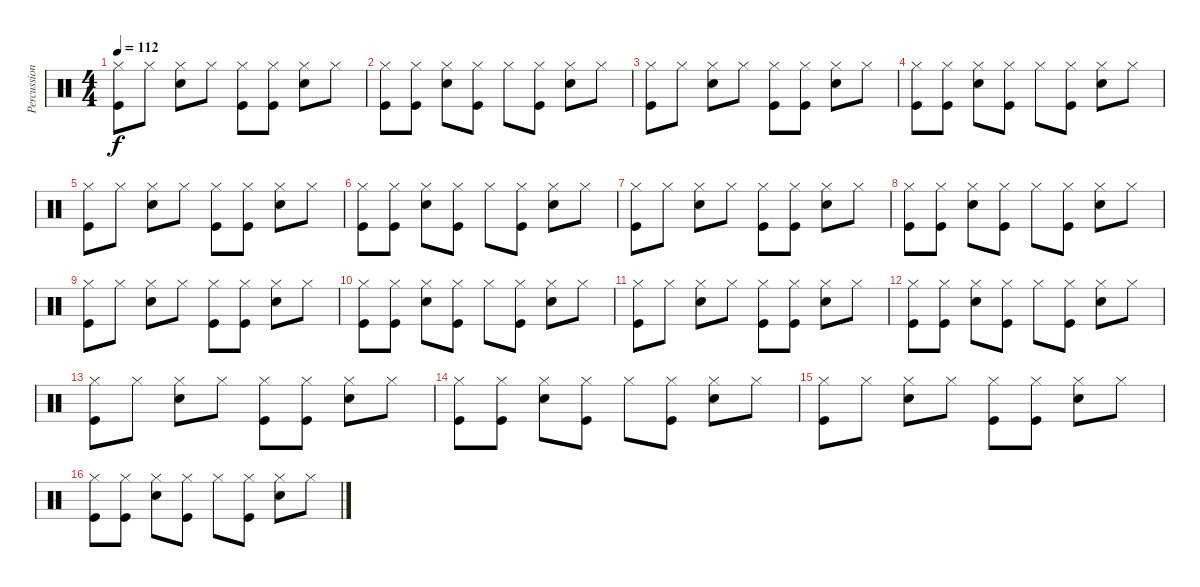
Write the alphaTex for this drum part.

\track ("Percussion" "Percussion") {instrument percussion}
\staff {score}
\articulation defaults
\ts (4 4)
\tempo 112
\clef neutral
\ks c
("Hi-Hat (closed)" "Kick (hit)").8{dy f} "Hi-Hat (closed)".8 ("Hi-Hat (closed)" "Electric Snare (hit)").8 "Hi-Hat (closed)".8 ("Hi-Hat (closed)" "Kick (hit)").8 ("Hi-Hat (closed)" "Kick (hit)").8 ("Hi-Hat (closed)" "Electric Snare (hit)").8 "Hi-Hat (closed)".8 |
("Hi-Hat (closed)" "Kick (hit)").8 ("Hi-Hat (closed)" "Kick (hit)").8 ("Hi-Hat (closed)" "Electric Snare (hit)").8 ("Hi-Hat (closed)" "Kick (hit)").8 "Hi-Hat (closed)".8 ("Hi-Hat (closed)" "Kick (hit)").8 ("Hi-Hat (closed)" "Electric Snare (hit)").8 "Hi-Hat (closed)".8 |
("Hi-Hat (closed)" "Kick (hit)").8 "Hi-Hat (closed)".8 ("Hi-Hat (closed)" "Electric Snare (hit)").8 "Hi-Hat (closed)".8 ("Hi-Hat (closed)" "Kick (hit)").8 ("Hi-Hat (closed)" "Kick (hit)").8 ("Hi-Hat (closed)" "Electric Snare (hit)").8 "Hi-Hat (closed)".8 |
("Hi-Hat (closed)" "Kick (hit)").8 ("Hi-Hat (closed)" "Kick (hit)").8 ("Hi-Hat (closed)" "Electric Snare (hit)").8 ("Hi-Hat (closed)" "Kick (hit)").8 "Hi-Hat (closed)".8 ("Hi-Hat (closed)" "Kick (hit)").8 ("Hi-Hat (closed)" "Electric Snare (hit)").8 "Hi-Hat (closed)".8 |
("Hi-Hat (closed)" "Kick (hit)").8 "Hi-Hat (closed)".8 ("Hi-Hat (closed)" "Electric Snare (hit)").8 "Hi-Hat (closed)".8 ("Hi-Hat (closed)" "Kick (hit)").8 ("Hi-Hat (closed)" "Kick (hit)").8 ("Hi-Hat (closed)" "Electric Snare (hit)").8 "Hi-Hat (closed)".8 |
("Hi-Hat (closed)" "Kick (hit)").8 ("Hi-Hat (closed)" "Kick (hit)").8 ("Hi-Hat (closed)" "Electric Snare (hit)").8 ("Hi-Hat (closed)" "Kick (hit)").8 "Hi-Hat (closed)".8 ("Hi-Hat (closed)" "Kick (hit)").8 ("Hi-Hat (closed)" "Electric Snare (hit)").8 "Hi-Hat (closed)".8 |
("Hi-Hat (closed)" "Kick (hit)").8 "Hi-Hat (closed)".8 ("Hi-Hat (closed)" "Electric Snare (hit)").8 "Hi-Hat (closed)".8 ("Hi-Hat (closed)" "Kick (hit)").8 ("Hi-Hat (closed)" "Kick (hit)").8 ("Hi-Hat (closed)" "Electric Snare (hit)").8 "Hi-Hat (closed)".8 |
("Hi-Hat (closed)" "Kick (hit)").8 ("Hi-Hat (closed)" "Kick (hit)").8 ("Hi-Hat (closed)" "Electric Snare (hit)").8 ("Hi-Hat (closed)" "Kick (hit)").8 "Hi-Hat (closed)".8 ("Hi-Hat (closed)" "Kick (hit)").8 ("Hi-Hat (closed)" "Electric Snare (hit)").8 "Hi-Hat (closed)".8 |
("Hi-Hat (closed)" "Kick (hit)").8 "Hi-Hat (closed)".8 ("Hi-Hat (closed)" "Electric Snare (hit)").8 "Hi-Hat (closed)".8 ("Hi-Hat (closed)" "Kick (hit)").8 ("Hi-Hat (closed)" "Kick (hit)").8 ("Hi-Hat (closed)" "Electric Snare (hit)").8 "Hi-Hat (closed)".8 |
("Hi-Hat (closed)" "Kick (hit)").8 ("Hi-Hat (closed)" "Kick (hit)").8 ("Hi-Hat (closed)" "Electric Snare (hit)").8 ("Hi-Hat (closed)" "Kick (hit)").8 "Hi-Hat (closed)".8 ("Hi-Hat (closed)" "Kick (hit)").8 ("Hi-Hat (closed)" "Electric Snare (hit)").8 "Hi-Hat (closed)".8 |
("Hi-Hat (closed)" "Kick (hit)").8 "Hi-Hat (closed)".8 ("Hi-Hat (closed)" "Electric Snare (hit)").8 "Hi-Hat (closed)".8 ("Hi-Hat (closed)" "Kick (hit)").8 ("Hi-Hat (closed)" "Kick (hit)").8 ("Hi-Hat (closed)" "Electric Snare (hit)").8 "Hi-Hat (closed)".8 |
("Hi-Hat (closed)" "Kick (hit)").8 ("Hi-Hat (closed)" "Kick (hit)").8 ("Hi-Hat (closed)" "Electric Snare (hit)").8 ("Hi-Hat (closed)" "Kick (hit)").8 "Hi-Hat (closed)".8 ("Hi-Hat (closed)" "Kick (hit)").8 ("Hi-Hat (closed)" "Electric Snare (hit)").8 "Hi-Hat (closed)".8 |
("Hi-Hat (closed)" "Kick (hit)").8 "Hi-Hat (closed)".8 ("Hi-Hat (closed)" "Electric Snare (hit)").8 "Hi-Hat (closed)".8 ("Hi-Hat (closed)" "Kick (hit)").8 ("Hi-Hat (closed)" "Kick (hit)").8 ("Hi-Hat (closed)" "Electric Snare (hit)").8 "Hi-Hat (closed)".8 |
("Hi-Hat (closed)" "Kick (hit)").8 ("Hi-Hat (closed)" "Kick (hit)").8 ("Hi-Hat (closed)" "Electric Snare (hit)").8 ("Hi-Hat (closed)" "Kick (hit)").8 "Hi-Hat (closed)".8 ("Hi-Hat (closed)" "Kick (hit)").8 ("Hi-Hat (closed)" "Electric Snare (hit)").8 "Hi-Hat (closed)".8 |
("Hi-Hat (closed)" "Kick (hit)").8 "Hi-Hat (closed)".8 ("Hi-Hat (closed)" "Electric Snare (hit)").8 "Hi-Hat (closed)".8 ("Hi-Hat (closed)" "Kick (hit)").8 ("Hi-Hat (closed)" "Kick (hit)").8 ("Hi-Hat (closed)" "Electric Snare (hit)").8 "Hi-Hat (closed)".8 |
("Hi-Hat (closed)" "Kick (hit)").8 ("Hi-Hat (closed)" "Kick (hit)").8 ("Hi-Hat (closed)" "Electric Snare (hit)").8 ("Hi-Hat (closed)" "Kick (hit)").8 "Hi-Hat (closed)".8 ("Hi-Hat (closed)" "Kick (hit)").8 ("Hi-Hat (closed)" "Electric Snare (hit)").8 "Hi-Hat (closed)".8
